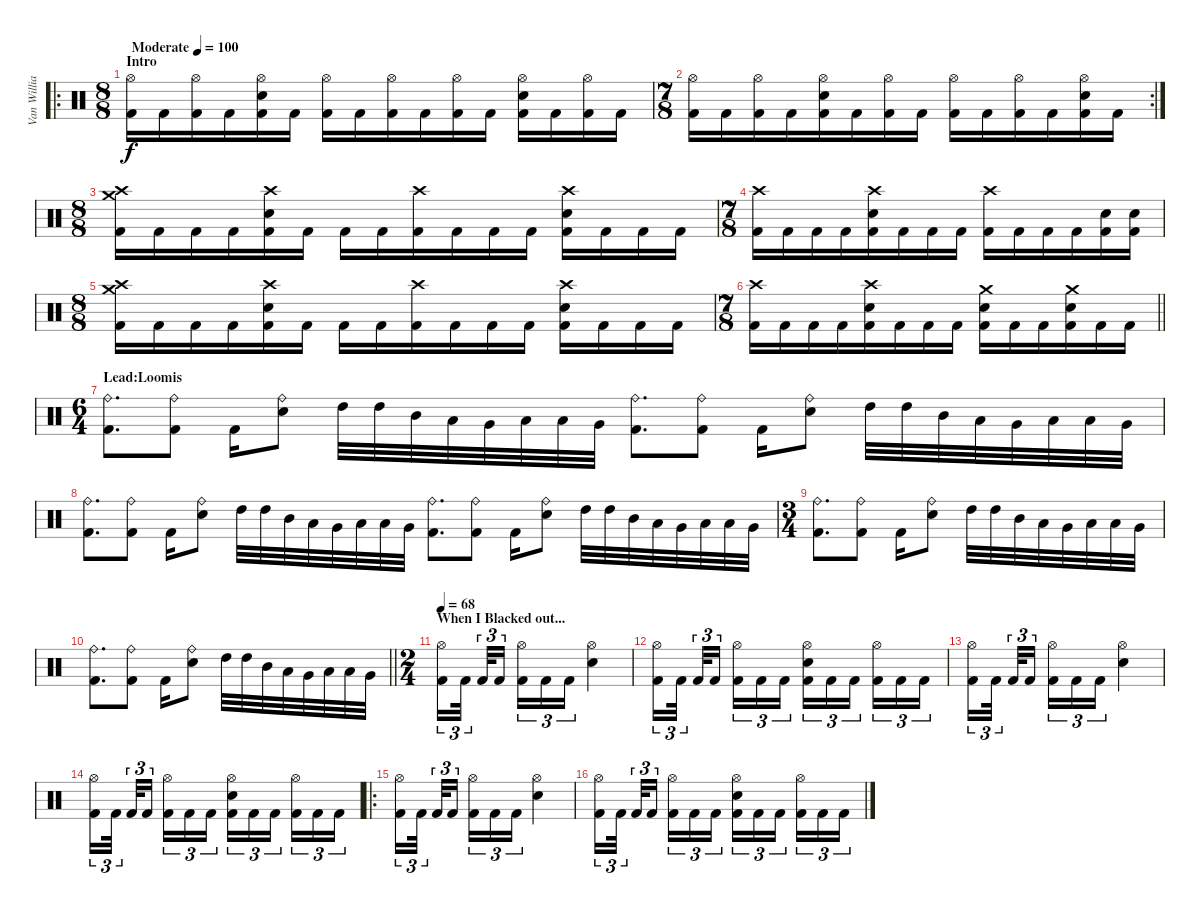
\track ("Van Williams" "Van Willia") {instrument percussion}
\staff
\articulation defaults
\ro
\ts (8 8)
\section ("" "Intro")
\tempo (100 "Moderate")
\clef neutral
\ks c
("Hi-Hat (open)" "Kick (hit) 2").16{dy f} "Kick (hit) 2".16 ("Hi-Hat (open)" "Kick (hit) 2").16 "Kick (hit) 2".16 ("Hi-Hat (open)" "Electric Snare (hit)" "Kick (hit) 2").16 "Kick (hit) 2".16 ("Hi-Hat (open)" "Kick (hit) 2").16 "Kick (hit) 2".16 ("Hi-Hat (open)" "Kick (hit) 2").16 "Kick (hit) 2".16 ("Hi-Hat (open)" "Kick (hit) 2").16 "Kick (hit) 2".16 ("Hi-Hat (open)" "Electric Snare (hit)" "Kick (hit) 2").16 "Kick (hit) 2".16 ("Hi-Hat (open)" "Kick (hit) 2").16 "Kick (hit) 2".16 |
\rc 2
\ts (7 8)
("Hi-Hat (open)" "Kick (hit) 2").16 "Kick (hit) 2".16 ("Hi-Hat (open)" "Kick (hit) 2").16 "Kick (hit) 2".16 ("Hi-Hat (open)" "Electric Snare (hit)" "Kick (hit) 2").16 "Kick (hit) 2".16 ("Hi-Hat (open)" "Kick (hit) 2").16 "Kick (hit) 2".16 ("Hi-Hat (open)" "Kick (hit) 2").16 "Kick (hit) 2".16 ("Hi-Hat (open)" "Kick (hit) 2").16 "Kick (hit) 2".16 ("Hi-Hat (open)" "Electric Snare (hit)" "Kick (hit) 2").16 "Kick (hit) 2".16 |
\ts (8 8)
("Crash medium (hit)" "Crash high (hit)" "Kick (hit) 2").16 "Kick (hit) 2".16 "Kick (hit) 2".16 "Kick (hit) 2".16 ("Crash high (hit)" "Electric Snare (hit)" "Kick (hit) 2").16 "Kick (hit) 2".16 "Kick (hit) 2".16 "Kick (hit) 2".16 ("Crash high (hit)" "Kick (hit) 2").16 "Kick (hit) 2".16 "Kick (hit) 2".16 "Kick (hit) 2".16 ("Crash high (hit)" "Electric Snare (hit)" "Kick (hit) 2").16 "Kick (hit) 2".16 "Kick (hit) 2".16 "Kick (hit) 2".16 |
\ts (7 8)
("Crash high (hit)" "Kick (hit) 2").16 "Kick (hit) 2".16 "Kick (hit) 2".16 "Kick (hit) 2".16 ("Crash high (hit)" "Electric Snare (hit)" "Kick (hit) 2").16 "Kick (hit) 2".16 "Kick (hit) 2".16 "Kick (hit) 2".16 ("Crash high (hit)" "Kick (hit) 2").16 "Kick (hit) 2".16 "Kick (hit) 2".16 "Kick (hit) 2".16 ("Electric Snare (hit)" "Kick (hit) 2").16 ("Electric Snare (hit)" "Kick (hit) 2").16 |
\ts (8 8)
("Crash medium (hit)" "Crash high (hit)" "Kick (hit) 2").16 "Kick (hit) 2".16 "Kick (hit) 2".16 "Kick (hit) 2".16 ("Crash high (hit)" "Electric Snare (hit)" "Kick (hit) 2").16 "Kick (hit) 2".16 "Kick (hit) 2".16 "Kick (hit) 2".16 ("Crash high (hit)" "Kick (hit) 2").16 "Kick (hit) 2".16 "Kick (hit) 2".16 "Kick (hit) 2".16 ("Crash high (hit)" "Electric Snare (hit)" "Kick (hit) 2").16 "Kick (hit) 2".16 "Kick (hit) 2".16 "Kick (hit) 2".16 |
\ts (7 8)
\barLineRight lightlight
("Crash high (hit)" "Kick (hit) 2").16 "Kick (hit) 2".16 "Kick (hit) 2".16 "Kick (hit) 2".16 ("Crash high (hit)" "Electric Snare (hit)" "Kick (hit) 2").16 "Kick (hit) 2".16 "Kick (hit) 2".16 "Kick (hit) 2".16 ("Crash medium (hit)" "Electric Snare (hit)" "Kick (hit) 2").16 "Kick (hit) 2".16 "Kick (hit) 2".16 ("Crash medium (hit)" "Electric Snare (hit)" "Kick (hit) 2").16 "Kick (hit) 2".16 "Kick (hit) 2".16 |
\ts (6 4)
\section ("" "Lead:Loomis")
("Ride (bell)" "Kick (hit) 2").8{d} ("Ride (bell)" "Kick (hit) 2").8 "Kick (hit) 2".16 ("Ride (bell)" "Electric Snare (hit)").8 "High Tom (hit)".32 "High Tom (hit)".32 "Mid Tom (hit)".32 "Low Tom (hit)".32 "Very Low Tom (hit)".32 "Low Floor Tom (hit)".32 "Low Tom (hit)".32 "Very Low Tom (hit)".32 ("Ride (bell)" "Kick (hit) 2").8{d} ("Ride (bell)" "Kick (hit) 2").8 "Kick (hit) 2".16 ("Ride (bell)" "Electric Snare (hit)").8 "High Tom (hit)".32 "High Tom (hit)".32 "Mid Tom (hit)".32 "Low Tom (hit)".32 "Very Low Tom (hit)".32 "Low Floor Tom (hit)".32 "Low Tom (hit)".32 "Very Low Tom (hit)".32 |
("Ride (bell)" "Kick (hit) 2").8{d} ("Ride (bell)" "Kick (hit) 2").8 "Kick (hit) 2".16 ("Ride (bell)" "Electric Snare (hit)").8 "High Tom (hit)".32 "High Tom (hit)".32 "Mid Tom (hit)".32 "Low Tom (hit)".32 "Very Low Tom (hit)".32 "Low Floor Tom (hit)".32 "Low Tom (hit)".32 "Very Low Tom (hit)".32 ("Ride (bell)" "Kick (hit) 2").8{d} ("Ride (bell)" "Kick (hit) 2").8 "Kick (hit) 2".16 ("Ride (bell)" "Electric Snare (hit)").8 "High Tom (hit)".32 "High Tom (hit)".32 "Mid Tom (hit)".32 "Low Tom (hit)".32 "Very Low Tom (hit)".32 "Low Floor Tom (hit)".32 "Low Tom (hit)".32 "Very Low Tom (hit)".32 |
\ts (3 4)
("Ride (bell)" "Kick (hit) 2").8{d} ("Ride (bell)" "Kick (hit) 2").8 "Kick (hit) 2".16 ("Ride (bell)" "Electric Snare (hit)").8 "High Tom (hit)".32 "High Tom (hit)".32 "Mid Tom (hit)".32 "Low Tom (hit)".32 "Very Low Tom (hit)".32 "Low Floor Tom (hit)".32 "Low Tom (hit)".32 "Very Low Tom (hit)".32 |
\barLineRight lightlight
("Ride (bell)" "Kick (hit) 2").8{d} ("Ride (bell)" "Kick (hit) 2").8 "Kick (hit) 2".16 ("Ride (bell)" "Electric Snare (hit)").8 "High Tom (hit)".32 "High Tom (hit)".32 "Mid Tom (hit)".32 "Low Tom (hit)".32 "Very Low Tom (hit)".32 "Low Floor Tom (hit)".32 "Low Tom (hit)".32 "Very Low Tom (hit)".32 |
\ts (2 4)
\section ("" "When I Blacked out...")
\tempo 68
("Hi-Hat (open)" "Kick (hit) 2").16{tu (3 2)} "Kick (hit) 2".32{tu (3 2) beam splitsecondary} "Kick (hit) 2".32{tu (3 2)} "Kick (hit) 2".16{tu (3 2) beam splitsecondary} ("Hi-Hat (open)" "Kick (hit) 2").16{tu (3 2)} "Kick (hit) 2".16{tu (3 2)} "Kick (hit) 2".16{tu (3 2)} ("Hi-Hat (open)" "Electric Snare (hit)").4 |
("Hi-Hat (open)" "Kick (hit) 2").16{tu (3 2)} "Kick (hit) 2".32{tu (3 2) beam splitsecondary} "Kick (hit) 2".32{tu (3 2)} "Kick (hit) 2".16{tu (3 2) beam splitsecondary} ("Hi-Hat (open)" "Kick (hit) 2").16{tu (3 2)} "Kick (hit) 2".16{tu (3 2)} "Kick (hit) 2".16{tu (3 2)} ("Hi-Hat (open)" "Electric Snare (hit)" "Kick (hit) 2").16{tu (3 2)} "Kick (hit) 2".16{tu (3 2)} "Kick (hit) 2".16{tu (3 2) beam splitsecondary} ("Hi-Hat (open)" "Kick (hit) 2").16{tu (3 2)} "Kick (hit) 2".16{tu (3 2)} "Kick (hit) 2".16{tu (3 2)} |
("Hi-Hat (open)" "Kick (hit) 2").16{tu (3 2)} "Kick (hit) 2".32{tu (3 2) beam splitsecondary} "Kick (hit) 2".32{tu (3 2)} "Kick (hit) 2".16{tu (3 2) beam splitsecondary} ("Hi-Hat (open)" "Kick (hit) 2").16{tu (3 2)} "Kick (hit) 2".16{tu (3 2)} "Kick (hit) 2".16{tu (3 2)} ("Hi-Hat (open)" "Electric Snare (hit)").4 |
("Hi-Hat (open)" "Kick (hit) 2").16{tu (3 2)} "Kick (hit) 2".32{tu (3 2) beam splitsecondary} "Kick (hit) 2".32{tu (3 2)} "Kick (hit) 2".16{tu (3 2) beam splitsecondary} ("Hi-Hat (open)" "Kick (hit) 2").16{tu (3 2)} "Kick (hit) 2".16{tu (3 2)} "Kick (hit) 2".16{tu (3 2)} ("Hi-Hat (open)" "Electric Snare (hit)" "Kick (hit) 2").16{tu (3 2)} "Kick (hit) 2".16{tu (3 2)} "Kick (hit) 2".16{tu (3 2) beam splitsecondary} ("Hi-Hat (open)" "Kick (hit) 2").16{tu (3 2)} "Kick (hit) 2".16{tu (3 2)} "Kick (hit) 2".16{tu (3 2)} |
\ro
("Hi-Hat (open)" "Kick (hit) 2").16{tu (3 2)} "Kick (hit) 2".32{tu (3 2) beam splitsecondary} "Kick (hit) 2".32{tu (3 2)} "Kick (hit) 2".16{tu (3 2) beam splitsecondary} ("Hi-Hat (open)" "Kick (hit) 2").16{tu (3 2)} "Kick (hit) 2".16{tu (3 2)} "Kick (hit) 2".16{tu (3 2)} ("Hi-Hat (open)" "Electric Snare (hit)").4 |
("Hi-Hat (open)" "Kick (hit) 2").16{tu (3 2)} "Kick (hit) 2".32{tu (3 2) beam splitsecondary} "Kick (hit) 2".32{tu (3 2)} "Kick (hit) 2".16{tu (3 2) beam splitsecondary} ("Hi-Hat (open)" "Kick (hit) 2").16{tu (3 2)} "Kick (hit) 2".16{tu (3 2)} "Kick (hit) 2".16{tu (3 2)} ("Hi-Hat (open)" "Electric Snare (hit)" "Kick (hit) 2").16{tu (3 2)} "Kick (hit) 2".16{tu (3 2)} "Kick (hit) 2".16{tu (3 2) beam splitsecondary} ("Hi-Hat (open)" "Kick (hit) 2").16{tu (3 2)} "Kick (hit) 2".16{tu (3 2)} "Kick (hit) 2".16{tu (3 2)}
